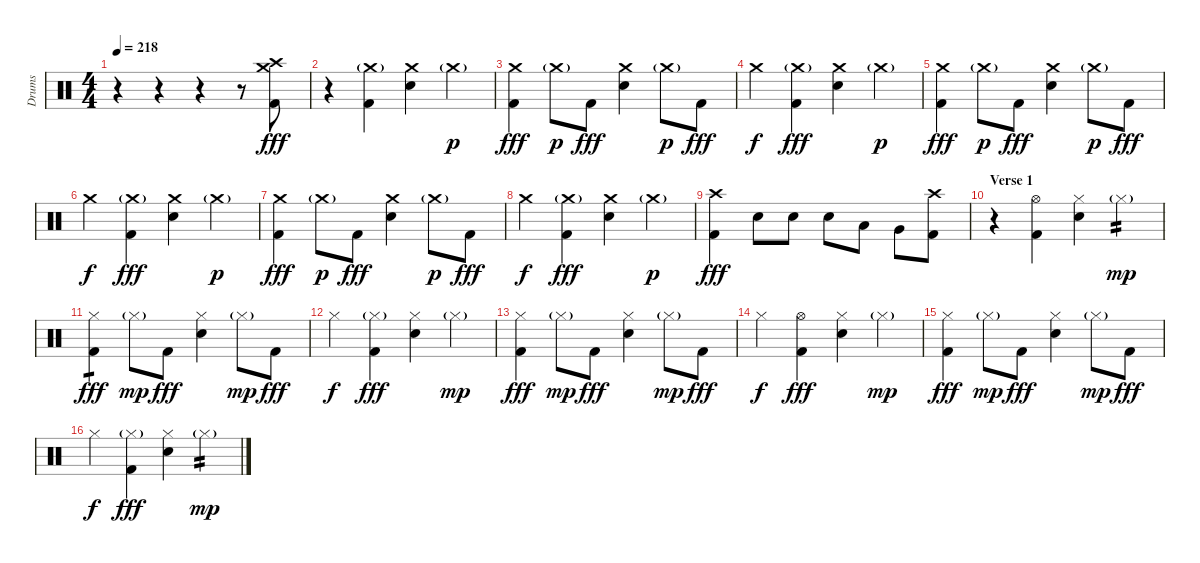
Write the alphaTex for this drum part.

\track ("Drums" "Drums") {instrument percussion}
\staff {score}
\articulation defaults
\ts (4 4)
\tempo 218
\clef neutral
\ks c
r.4{dy fff} r.4 r.4 r.8 ("Crash medium (hit)" "Crash high (hit)" "Kick (hit) 2").8 |
r.4 ("Crash medium (hit)"{g} "Kick (hit) 2").4 ("Crash medium (hit)" "Electric Snare (hit)").4 "Crash medium (hit)"{g}.4{dy p} |
("Crash medium (hit)" "Kick (hit) 2").4{dy fff} "Crash medium (hit)"{g}.8{dy p} "Kick (hit) 2".8{dy fff} ("Crash medium (hit)" "Electric Snare (hit)").4 "Crash medium (hit)"{g}.8{dy p} "Kick (hit) 2".8{dy fff} |
"Crash medium (hit)".4{dy f} ("Crash medium (hit)"{g} "Kick (hit) 2").4{dy fff} ("Crash medium (hit)" "Electric Snare (hit)").4 "Crash medium (hit)"{g}.4{dy p} |
("Crash medium (hit)" "Kick (hit) 2").4{dy fff} "Crash medium (hit)"{g}.8{dy p} "Kick (hit) 2".8{dy fff} ("Crash medium (hit)" "Electric Snare (hit)").4 "Crash medium (hit)"{g}.8{dy p} "Kick (hit) 2".8{dy fff} |
"Crash medium (hit)".4{dy f} ("Crash medium (hit)"{g} "Kick (hit) 2").4{dy fff} ("Crash medium (hit)" "Electric Snare (hit)").4 "Crash medium (hit)"{g}.4{dy p} |
("Crash medium (hit)" "Kick (hit) 2").4{dy fff} "Crash medium (hit)"{g}.8{dy p} "Kick (hit) 2".8{dy fff} ("Crash medium (hit)" "Electric Snare (hit)").4 "Crash medium (hit)"{g}.8{dy p} "Kick (hit) 2".8{dy fff} |
"Crash medium (hit)".4{dy f} ("Crash medium (hit)"{g} "Kick (hit) 2").4{dy fff} ("Crash medium (hit)" "Electric Snare (hit)").4 "Crash medium (hit)"{g}.4{dy p} |
("Crash high (hit)" "Kick (hit) 2").4{dy fff} "Electric Snare (hit)".8 "Electric Snare (hit)".8 "Electric Snare (hit)".8 "Low Tom (hit)".8 "Very Low Tom (hit)".8 ("Crash high (hit)" "Kick (hit) 2").8 |
\section ("" "Verse 1")
r.4 ("Hi-Hat (open)" "Kick (hit) 2").4 ("Hi-Hat (closed)" "Electric Snare (hit)").4 "Hi-Hat (closed)"{g}.4{tp 2 dy mp} |
("Hi-Hat (closed)" "Kick (hit) 2").4{tp 1 dy fff} "Hi-Hat (closed)"{g}.8{dy mp} "Kick (hit) 2".8{dy fff} ("Hi-Hat (closed)" "Electric Snare (hit)").4 "Hi-Hat (closed)"{g}.8{dy mp} "Kick (hit) 2".8{dy fff} |
"Hi-Hat (closed)".4{dy f} ("Hi-Hat (closed)"{g} "Kick (hit) 2").4{dy fff} ("Hi-Hat (closed)" "Electric Snare (hit)").4 "Hi-Hat (closed)"{g}.4{dy mp} |
("Hi-Hat (closed)" "Kick (hit) 2").4{dy fff} "Hi-Hat (closed)"{g}.8{dy mp} "Kick (hit) 2".8{dy fff} ("Hi-Hat (closed)" "Electric Snare (hit)").4 "Hi-Hat (closed)"{g}.8{dy mp} "Kick (hit) 2".8{dy fff} |
"Hi-Hat (closed)".4{dy f} ("Hi-Hat (open)" "Kick (hit) 2").4{dy fff} ("Hi-Hat (closed)" "Electric Snare (hit)").4 "Hi-Hat (closed)"{g}.4{dy mp} |
("Hi-Hat (closed)" "Kick (hit) 2").4{dy fff} "Hi-Hat (closed)"{g}.8{dy mp} "Kick (hit) 2".8{dy fff} ("Hi-Hat (closed)" "Electric Snare (hit)").4 "Hi-Hat (closed)"{g}.8{dy mp} "Kick (hit) 2".8{dy fff} |
"Hi-Hat (closed)".4{dy f} ("Hi-Hat (closed)"{g} "Kick (hit) 2").4{dy fff} ("Hi-Hat (closed)" "Electric Snare (hit)").4 "Hi-Hat (closed)"{g}.4{tp 2 dy mp}
